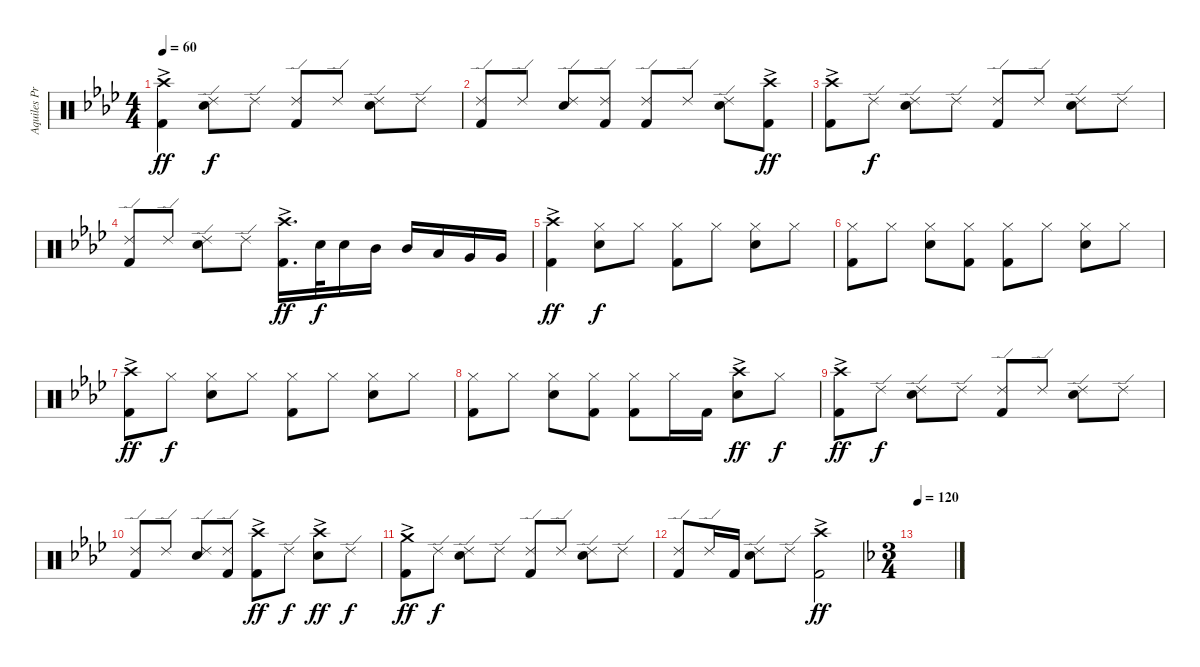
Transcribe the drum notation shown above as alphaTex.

\track ("Aquiles Priester" "Aquiles Pr") {instrument percussion}
\staff {score}
\articulation defaults
\ts (4 4)
\tempo 60
\clef neutral
\ks ab
("Crash high (hit)"{ac} "Kick (hit) 2"{ac}).4{dy ff} ("Ride (edge) 2" "Electric Snare (hit)").8{dy f} "Ride (edge) 2".8 ("Ride (edge) 2" "Kick (hit) 2").8 "Ride (edge) 2".8 ("Ride (edge) 2" "Electric Snare (hit)").8 "Ride (edge) 2".8 |
("Ride (edge) 2" "Kick (hit) 2").8 "Ride (edge) 2".8 ("Ride (edge) 2" "Electric Snare (hit)").8 ("Ride (edge) 2" "Kick (hit) 2").8 ("Ride (edge) 2" "Kick (hit) 2").8 "Ride (edge) 2".8 ("Ride (edge) 2" "Electric Snare (hit)").8 ("Crash high (hit)"{ac} "Kick (hit) 2"{ac}).8{dy ff} |
("Crash high (hit)"{ac} "Kick (hit) 2"{ac}).8 "Ride (edge) 2".8{dy f} ("Ride (edge) 2" "Electric Snare (hit)").8 "Ride (edge) 2".8 ("Ride (edge) 2" "Kick (hit) 2").8 "Ride (edge) 2".8 ("Ride (edge) 2" "Electric Snare (hit)").8 "Ride (edge) 2".8 |
("Ride (edge) 2" "Kick (hit) 2").8 "Ride (edge) 2".8 ("Ride (edge) 2" "Electric Snare (hit)").8 "Ride (edge) 2".8 ("Crash high (hit)"{ac} "Kick (hit) 2"{ac}).16{d dy ff} "Electric Snare (hit)".32{dy f} "Electric Snare (hit)".16 "Mid Tom (hit)".16 "Mid Tom (hit)".16 "Low Tom (hit)".16 "Very Low Tom (hit)".16 "Very Low Tom (hit)".16 |
("Crash high (hit)"{ac} "Kick (hit) 2"{ac}).4{dy ff} ("Hi-Hat (closed)" "Electric Snare (hit)").8{dy f} "Hi-Hat (closed)".8 ("Hi-Hat (closed)" "Kick (hit) 2").8 "Hi-Hat (closed)".8 ("Hi-Hat (closed)" "Electric Snare (hit)").8 "Hi-Hat (closed)".8 |
("Hi-Hat (closed)" "Kick (hit) 2").8 "Hi-Hat (closed)".8 ("Hi-Hat (closed)" "Electric Snare (hit)").8 ("Hi-Hat (closed)" "Kick (hit) 2").8 ("Hi-Hat (closed)" "Kick (hit) 2").8 "Hi-Hat (closed)".8 ("Hi-Hat (closed)" "Electric Snare (hit)").8 "Hi-Hat (closed)".8 |
("Crash high (hit)"{ac} "Kick (hit) 2"{ac}).8{dy ff} "Hi-Hat (closed)".8{dy f} ("Hi-Hat (closed)" "Electric Snare (hit)").8 "Hi-Hat (closed)".8 ("Hi-Hat (closed)" "Kick (hit) 2").8 "Hi-Hat (closed)".8 ("Hi-Hat (closed)" "Electric Snare (hit)").8 "Hi-Hat (closed)".8 |
("Hi-Hat (closed)" "Kick (hit) 2").8 "Hi-Hat (closed)".8 ("Hi-Hat (closed)" "Electric Snare (hit)").8 ("Hi-Hat (closed)" "Kick (hit) 2").8 ("Hi-Hat (closed)" "Kick (hit) 2").8 "Hi-Hat (closed)".16 "Kick (hit) 2".16 ("Crash high (hit)"{ac} "Electric Snare (hit)"{ac}).8{dy ff} "Hi-Hat (closed)".8{dy f} |
("Crash high (hit)"{ac} "Kick (hit) 2"{ac}).8{dy ff} "Ride (edge) 2".8{dy f} ("Ride (edge) 2" "Electric Snare (hit)").8 "Ride (edge) 2".8 ("Ride (edge) 2" "Kick (hit) 2").8 "Ride (edge) 2".8 ("Ride (edge) 2" "Electric Snare (hit)").8 "Ride (edge) 2".8 |
("Ride (edge) 2" "Kick (hit) 2").8 "Ride (edge) 2".8 ("Ride (edge) 2" "Electric Snare (hit)").8 ("Ride (edge) 2" "Kick (hit) 2").8 ("Crash high (hit)"{ac} "Kick (hit) 2"{ac}).8{dy ff} "Ride (edge) 2".8{dy f} ("Crash high (hit)"{ac} "Electric Snare (hit)"{ac}).8{dy ff} "Ride (edge) 2".8{dy f} |
("Crash medium (hit)"{ac} "Kick (hit) 2"{ac}).8{dy ff} "Ride (edge) 2".8{dy f} ("Ride (edge) 2" "Electric Snare (hit)").8 "Ride (edge) 2".8 ("Ride (edge) 2" "Kick (hit) 2").8 "Ride (edge) 2".8 ("Ride (edge) 2" "Electric Snare (hit)").8 "Ride (edge) 2".8 |
("Ride (edge) 2" "Kick (hit) 2").8 "Ride (edge) 2".16 "Kick (hit) 2".16 ("Ride (edge) 2" "Electric Snare (hit)").8 "Ride (edge) 2".8 ("Crash high (hit)"{ac} "Kick (hit) 2"{ac}).2{dy ff} |
\ts (3 4)
\tempo 120
\ks f
